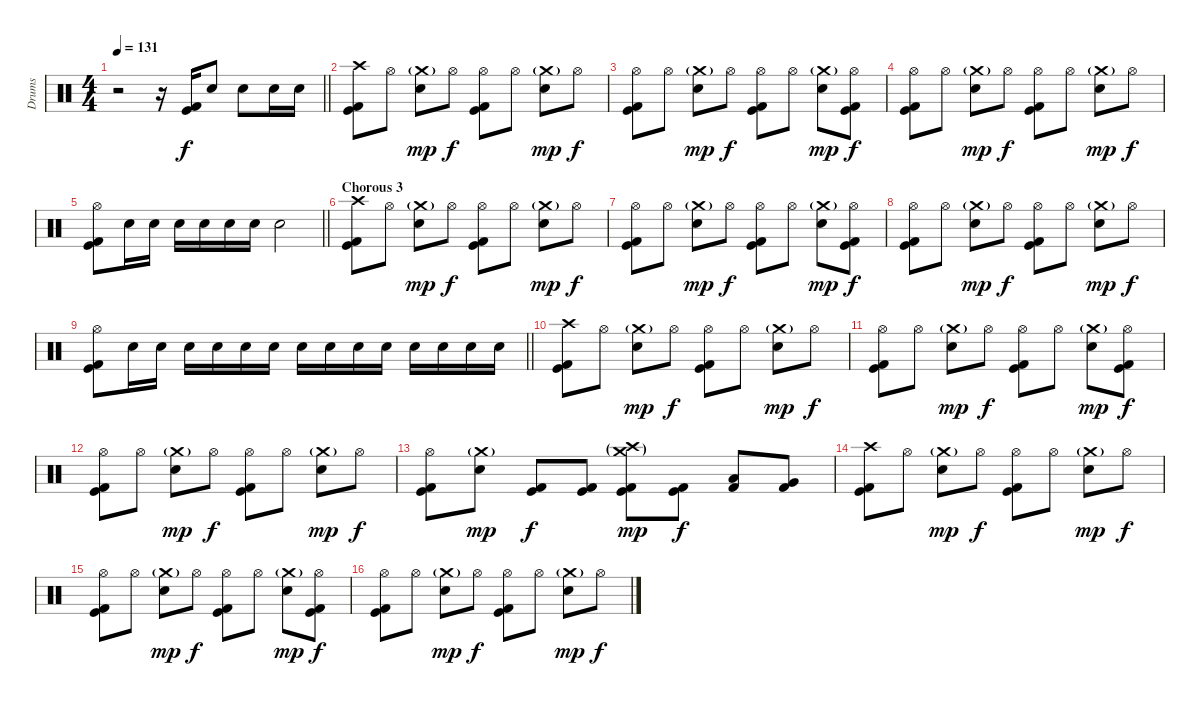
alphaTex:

\track ("Drums" "Drums") {instrument percussion}
\staff {score}
\articulation defaults
\ts (4 4)
\tempo 131
\clef neutral
\barLineRight lightlight
\ks c
r.2{dy f} r.16 ("Kick (hit)" "Kick (hit) 2").16 "Electric Snare (hit)".8 "Electric Snare (hit)".8 "Electric Snare (hit)".16 "Electric Snare (hit)".16 |
\section ("" "")
("Crash high (hit)" "Kick (hit)" "Kick (hit) 2").8 "Hi-Hat (open)".8 ("Crash medium (hit)"{g} "Electric Snare (hit)").8{dy mp} "Hi-Hat (open)".8{dy f} ("Hi-Hat (open)" "Kick (hit)" "Kick (hit) 2").8 "Hi-Hat (open)".8 ("Crash medium (hit)"{g} "Electric Snare (hit)").8{dy mp} "Hi-Hat (open)".8{dy f} |
("Hi-Hat (open)" "Kick (hit)" "Kick (hit) 2").8 "Hi-Hat (open)".8 ("Crash medium (hit)"{g} "Electric Snare (hit)").8{dy mp} "Hi-Hat (open)".8{dy f} ("Hi-Hat (open)" "Kick (hit)" "Kick (hit) 2").8 "Hi-Hat (open)".8 ("Crash medium (hit)"{g} "Electric Snare (hit)").8{dy mp} ("Hi-Hat (open)" "Kick (hit)" "Kick (hit) 2").8{dy f} |
("Hi-Hat (open)" "Kick (hit)" "Kick (hit) 2").8 "Hi-Hat (open)".8 ("Crash medium (hit)"{g} "Electric Snare (hit)").8{dy mp} "Hi-Hat (open)".8{dy f} ("Hi-Hat (open)" "Kick (hit)" "Kick (hit) 2").8 "Hi-Hat (open)".8 ("Crash medium (hit)"{g} "Electric Snare (hit)").8{dy mp} "Hi-Hat (open)".8{dy f} |
\barLineRight lightlight
("Hi-Hat (open)" "Kick (hit)" "Kick (hit) 2").8 "Electric Snare (hit)".16 "Electric Snare (hit)".16 "Electric Snare (hit)".16 "Electric Snare (hit)".16 "Electric Snare (hit)".16 "Electric Snare (hit)".16 "Electric Snare (hit)".2 |
\section ("" "Chorous 3")
("Crash high (hit)" "Kick (hit)" "Kick (hit) 2").8 "Hi-Hat (open)".8 ("Crash medium (hit)"{g} "Electric Snare (hit)").8{dy mp} "Hi-Hat (open)".8{dy f} ("Hi-Hat (open)" "Kick (hit)" "Kick (hit) 2").8 "Hi-Hat (open)".8 ("Crash medium (hit)"{g} "Electric Snare (hit)").8{dy mp} "Hi-Hat (open)".8{dy f} |
("Hi-Hat (open)" "Kick (hit)" "Kick (hit) 2").8 "Hi-Hat (open)".8 ("Crash medium (hit)"{g} "Electric Snare (hit)").8{dy mp} "Hi-Hat (open)".8{dy f} ("Hi-Hat (open)" "Kick (hit)" "Kick (hit) 2").8 "Hi-Hat (open)".8 ("Crash medium (hit)"{g} "Electric Snare (hit)").8{dy mp} ("Hi-Hat (open)" "Kick (hit)" "Kick (hit) 2").8{dy f} |
("Hi-Hat (open)" "Kick (hit)" "Kick (hit) 2").8 "Hi-Hat (open)".8 ("Crash medium (hit)"{g} "Electric Snare (hit)").8{dy mp} "Hi-Hat (open)".8{dy f} ("Hi-Hat (open)" "Kick (hit)" "Kick (hit) 2").8 "Hi-Hat (open)".8 ("Crash medium (hit)"{g} "Electric Snare (hit)").8{dy mp} "Hi-Hat (open)".8{dy f} |
\barLineRight lightlight
("Hi-Hat (open)" "Kick (hit)" "Kick (hit) 2").8 "Electric Snare (hit)".16 "Electric Snare (hit)".16 "Electric Snare (hit)".16 "Electric Snare (hit)".16 "Electric Snare (hit)".16 "Electric Snare (hit)".16 "Electric Snare (hit)".16 "Electric Snare (hit)".16 "Electric Snare (hit)".16 "Electric Snare (hit)".16 "Electric Snare (hit)".16 "Electric Snare (hit)".16 "Electric Snare (hit)".16 "Electric Snare (hit)".16 |
("Crash high (hit)" "Kick (hit)" "Kick (hit) 2").8 "Hi-Hat (open)".8 ("Crash medium (hit)"{g} "Electric Snare (hit)").8{dy mp} "Hi-Hat (open)".8{dy f} ("Hi-Hat (open)" "Kick (hit)" "Kick (hit) 2").8 "Hi-Hat (open)".8 ("Crash medium (hit)"{g} "Electric Snare (hit)").8{dy mp} "Hi-Hat (open)".8{dy f} |
("Hi-Hat (open)" "Kick (hit)" "Kick (hit) 2").8 "Hi-Hat (open)".8 ("Crash medium (hit)"{g} "Electric Snare (hit)").8{dy mp} "Hi-Hat (open)".8{dy f} ("Hi-Hat (open)" "Kick (hit)" "Kick (hit) 2").8 "Hi-Hat (open)".8 ("Crash medium (hit)"{g} "Electric Snare (hit)").8{dy mp} ("Hi-Hat (open)" "Kick (hit)" "Kick (hit) 2").8{dy f} |
("Hi-Hat (open)" "Kick (hit)" "Kick (hit) 2").8 "Hi-Hat (open)".8 ("Crash medium (hit)"{g} "Electric Snare (hit)").8{dy mp} "Hi-Hat (open)".8{dy f} ("Hi-Hat (open)" "Kick (hit)" "Kick (hit) 2").8 "Hi-Hat (open)".8 ("Crash medium (hit)"{g} "Electric Snare (hit)").8{dy mp} "Hi-Hat (open)".8{dy f} |
("Hi-Hat (open)" "Kick (hit)" "Kick (hit) 2").8 ("Crash medium (hit)"{g} "Electric Snare (hit)").8{dy mp} ("Kick (hit)" "Kick (hit) 2").8{dy f} ("Kick (hit)" "Kick (hit) 2").8 ("Crash medium (hit)"{g} "Crash high (hit)"{g} "Kick (hit)" "Kick (hit) 2").8{dy mp} ("Kick (hit)" "Kick (hit) 2").8{dy f} ("Kick (hit) 2" "Low Tom (hit)").8 ("Kick (hit) 2" "Very Low Tom (hit)").8 |
("Crash high (hit)" "Kick (hit)" "Kick (hit) 2").8 "Hi-Hat (open)".8 ("Crash medium (hit)"{g} "Electric Snare (hit)").8{dy mp} "Hi-Hat (open)".8{dy f} ("Hi-Hat (open)" "Kick (hit)" "Kick (hit) 2").8 "Hi-Hat (open)".8 ("Crash medium (hit)"{g} "Electric Snare (hit)").8{dy mp} "Hi-Hat (open)".8{dy f} |
("Hi-Hat (open)" "Kick (hit)" "Kick (hit) 2").8 "Hi-Hat (open)".8 ("Crash medium (hit)"{g} "Electric Snare (hit)").8{dy mp} "Hi-Hat (open)".8{dy f} ("Hi-Hat (open)" "Kick (hit)" "Kick (hit) 2").8 "Hi-Hat (open)".8 ("Crash medium (hit)"{g} "Electric Snare (hit)").8{dy mp} ("Hi-Hat (open)" "Kick (hit)" "Kick (hit) 2").8{dy f} |
("Hi-Hat (open)" "Kick (hit)" "Kick (hit) 2").8 "Hi-Hat (open)".8 ("Crash medium (hit)"{g} "Electric Snare (hit)").8{dy mp} "Hi-Hat (open)".8{dy f} ("Hi-Hat (open)" "Kick (hit)" "Kick (hit) 2").8 "Hi-Hat (open)".8 ("Crash medium (hit)"{g} "Electric Snare (hit)").8{dy mp} "Hi-Hat (open)".8{dy f}
